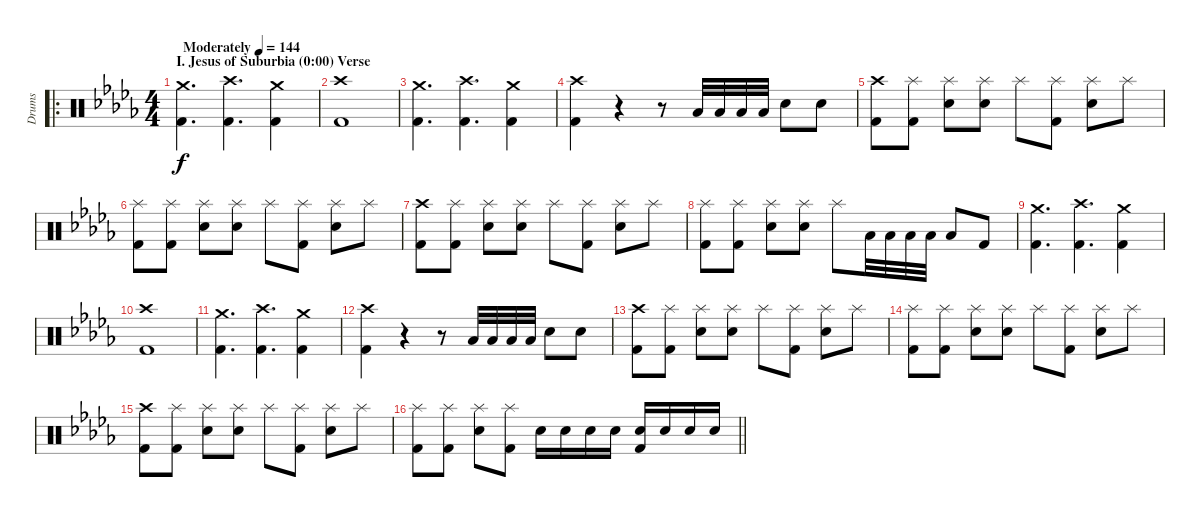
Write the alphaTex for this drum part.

\track ("Drums" "Drums") {instrument percussion}
\staff {score}
\articulation defaults
\ro
\ts (4 4)
\section ("" "I. Jesus of Suburbia (0:00) Verse")
\tempo (144 "Moderately")
\clef neutral
\ks db
("Crash medium (hit)" "Kick (hit) 2").4{d dy f} ("Crash high (hit)" "Kick (hit) 2").4{d} ("Crash medium (hit)" "Kick (hit) 2").4 |
("Crash high (hit)" "Kick (hit) 2").1 |
("Crash medium (hit)" "Kick (hit) 2").4{d} ("Crash high (hit)" "Kick (hit) 2").4{d} ("Crash medium (hit)" "Kick (hit) 2").4 |
("Crash high (hit)" "Kick (hit) 2").4 r.4 r.8 "Low Tom (hit)".32 "Low Tom (hit)".32 "Low Tom (hit)".32 "Low Tom (hit)".32 "Snare (hit) 2".8 "Snare (hit) 2".8 |
("Crash high (hit)" "Kick (hit) 2").8 ("Splash (hit)" "Kick (hit) 2").8 ("Splash (hit)" "Snare (hit) 2").8 ("Splash (hit)" "Snare (hit) 2").8 "Splash (hit)".8 ("Splash (hit)" "Kick (hit) 2").8 ("Splash (hit)" "Snare (hit) 2").8 "Splash (hit)".8 |
("Splash (hit)" "Kick (hit) 2").8 ("Splash (hit)" "Kick (hit) 2").8 ("Splash (hit)" "Snare (hit) 2").8 ("Splash (hit)" "Snare (hit) 2").8 "Splash (hit)".8 ("Splash (hit)" "Kick (hit) 2").8 ("Splash (hit)" "Snare (hit) 2").8 "Splash (hit)".8 |
("Crash high (hit)" "Kick (hit) 2").8 ("Splash (hit)" "Kick (hit) 2").8 ("Splash (hit)" "Snare (hit) 2").8 ("Splash (hit)" "Snare (hit) 2").8 "Splash (hit)".8 ("Splash (hit)" "Kick (hit) 2").8 ("Splash (hit)" "Snare (hit) 2").8 "Splash (hit)".8 |
("Splash (hit)" "Kick (hit) 2").8 ("Splash (hit)" "Kick (hit) 2").8 ("Splash (hit)" "Snare (hit) 2").8 ("Splash (hit)" "Snare (hit) 2").8 "Splash (hit)".8 "Low Tom (hit)".32 "Low Tom (hit)".32 "Low Tom (hit)".32 "Low Tom (hit)".32 "Low Tom (hit)".8 "Kick (hit) 2".8 |
("Crash medium (hit)" "Kick (hit) 2").4{d} ("Crash high (hit)" "Kick (hit) 2").4{d} ("Crash medium (hit)" "Kick (hit) 2").4 |
("Crash high (hit)" "Kick (hit) 2").1 |
("Crash medium (hit)" "Kick (hit) 2").4{d} ("Crash high (hit)" "Kick (hit) 2").4{d} ("Crash medium (hit)" "Kick (hit) 2").4 |
("Crash high (hit)" "Kick (hit) 2").4 r.4 r.8 "Low Tom (hit)".32 "Low Tom (hit)".32 "Low Tom (hit)".32 "Low Tom (hit)".32 "Snare (hit) 2".8 "Snare (hit) 2".8 |
("Crash high (hit)" "Kick (hit) 2").8 ("Splash (hit)" "Kick (hit) 2").8 ("Splash (hit)" "Snare (hit) 2").8 ("Splash (hit)" "Snare (hit) 2").8 "Splash (hit)".8 ("Splash (hit)" "Kick (hit) 2").8 ("Splash (hit)" "Snare (hit) 2").8 "Splash (hit)".8 |
("Splash (hit)" "Kick (hit) 2").8 ("Splash (hit)" "Kick (hit) 2").8 ("Splash (hit)" "Snare (hit) 2").8 ("Splash (hit)" "Snare (hit) 2").8 "Splash (hit)".8 ("Splash (hit)" "Kick (hit) 2").8 ("Splash (hit)" "Snare (hit) 2").8 "Splash (hit)".8 |
("Crash high (hit)" "Kick (hit) 2").8 ("Splash (hit)" "Kick (hit) 2").8 ("Splash (hit)" "Snare (hit) 2").8 ("Splash (hit)" "Snare (hit) 2").8 "Splash (hit)".8 ("Splash (hit)" "Kick (hit) 2").8 ("Splash (hit)" "Snare (hit) 2").8 "Splash (hit)".8 |
\barLineRight lightlight
("Splash (hit)" "Kick (hit) 2").8 ("Splash (hit)" "Kick (hit) 2").8 ("Splash (hit)" "Snare (hit) 2").8 ("Splash (hit)" "Kick (hit) 2").8 "Snare (hit) 2".16 "Snare (hit) 2".16 "Snare (hit) 2".16 "Snare (hit) 2".16 ("Snare (hit) 2" "Kick (hit) 2").16 "Snare (hit) 2".16 "Snare (hit) 2".16 "Snare (hit) 2".16
